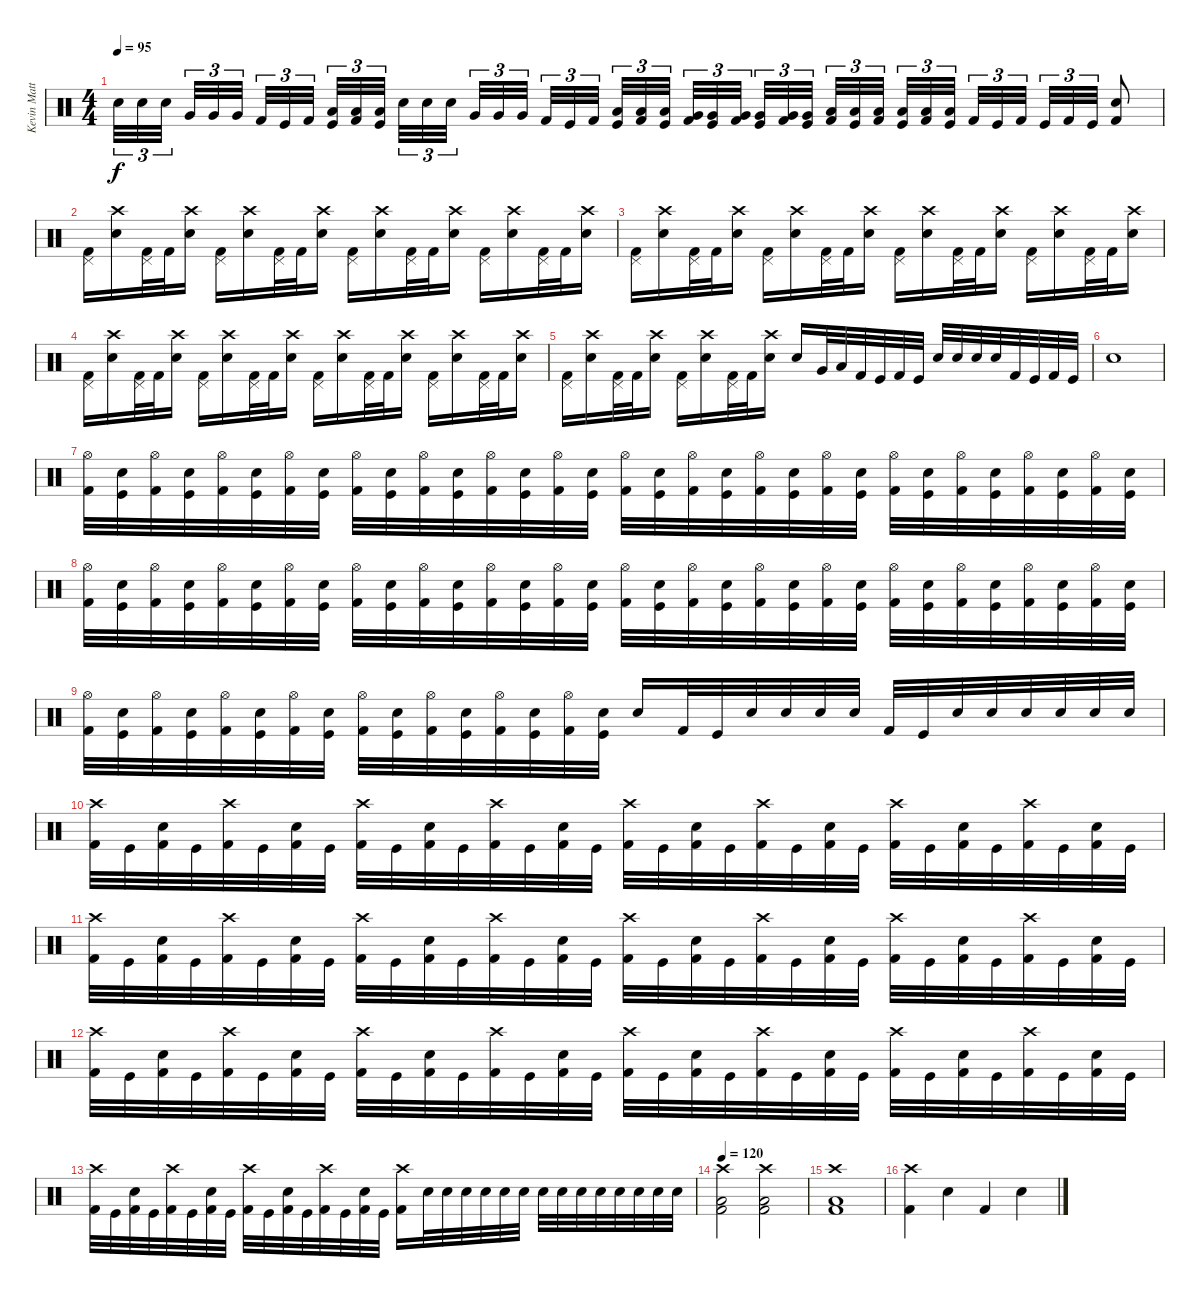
\track ("Kevin Matthews (Drums)" "Kevin Matt") {instrument percussion}
\staff {score}
\articulation defaults
\ts (4 4)
\tempo 95
\clef neutral
\ks c "Electric Snare (hit)".32{tu (3 2) dy f} "Electric Snare (hit)".32{tu (3 2)} "Electric Snare (hit)".32{tu (3 2) beam splitsecondary} "Very Low Tom (hit)".32{tu (3 2)} "Very Low Tom (hit)".32{tu (3 2)} "Very Low Tom (hit)".32{tu (3 2) beam splitsecondary} "Kick (hit) 2".32{tu (3 2)} "Kick (hit)".32{tu (3 2)} "Kick (hit) 2".32{tu (3 2) beam splitsecondary}
("Low Floor Tom (hit)" "Kick (hit)").32{tu (3 2)} ("Low Floor Tom (hit)" "Kick (hit) 2").32{tu (3 2)} ("Low Floor Tom (hit)" "Kick (hit)").32{tu (3 2)} "Electric Snare (hit)".32{tu (3 2)} "Electric Snare (hit)".32{tu (3 2)} "Electric Snare (hit)".32{tu (3 2) beam splitsecondary} "Very Low Tom (hit)".32{tu (3 2)} "Very Low Tom (hit)".32{tu (3 2)} "Very Low Tom (hit)".32{tu (3 2) beam splitsecondary} "Kick (hit) 2".32{tu (3 2)} "Kick (hit)".32{tu (3 2)} "Kick (hit) 2".32{tu (3 2) beam splitsecondary} ("Low Floor Tom (hit)" "Kick (hit)").32{tu (3 2)} ("Low Floor Tom (hit)" "Kick (hit) 2").32{tu (3 2)} ("Low Floor Tom (hit)" "Kick (hit)").32{tu (3 2)} ("Very Low Tom (hit)" "Kick (hit) 2").32{tu (3 2)} ("Very Low Tom (hit)" "Kick (hit)").32{tu (3 2)} ("Very Low Tom (hit)" "Kick (hit) 2").32{tu (3 2) beam splitsecondary} ("Very Low Tom (hit)" "Kick (hit)").32{tu (3 2)} ("Very Low Tom (hit)" "Kick (hit) 2").32{tu (3 2)} ("Very Low Tom (hit)" "Kick (hit)").32{tu (3 2) beam splitsecondary} ("Low Floor Tom (hit)" "Kick (hit) 2").32{tu (3 2)} ("Low Floor Tom (hit)" "Kick (hit)").32{tu (3 2)} ("Low Floor Tom (hit)" "Kick (hit) 2").32{tu (3 2) beam splitsecondary} ("Low Floor Tom (hit)" "Kick (hit)").32{tu (3 2)} ("Low Floor Tom (hit)" "Kick (hit) 2").32{tu (3 2)} ("Low Floor Tom (hit)" "Kick (hit)").32{tu (3 2)} "Kick (hit) 2".32{tu (3 2)} "Kick (hit)".32{tu (3 2)} "Kick (hit) 2".32{tu (3 2) beam splitsecondary} "Kick (hit)".32{tu (3 2)} "Kick (hit) 2".32{tu (3 2)} "Kick (hit)".32{tu (3 2)} ("Electric Snare (hit)" "Kick (hit) 2").8 |
("Pedal Hi-Hat (hit)" "Kick (hit) 2").16 ("Crash high (hit)" "Electric Snare (hit)").16 ("Pedal Hi-Hat (hit)" "Kick (hit) 2").32 "Kick (hit) 2".32 ("Crash high (hit)" "Electric Snare (hit)").16 ("Pedal Hi-Hat (hit)" "Kick (hit) 2").16 ("Crash high (hit)" "Electric Snare (hit)").16 ("Pedal Hi-Hat (hit)" "Kick (hit) 2").32 "Kick (hit) 2".32 ("Crash high (hit)" "Electric Snare (hit)").16 ("Pedal Hi-Hat (hit)" "Kick (hit) 2").16 ("Crash high (hit)" "Electric Snare (hit)").16 ("Pedal Hi-Hat (hit)" "Kick (hit) 2").32 "Kick (hit) 2".32 ("Crash high (hit)" "Electric Snare (hit)").16 ("Pedal Hi-Hat (hit)" "Kick (hit) 2").16 ("Crash high (hit)" "Electric Snare (hit)").16 ("Pedal Hi-Hat (hit)" "Kick (hit) 2").32 "Kick (hit) 2".32 ("Crash high (hit)" "Electric Snare (hit)").16 |
("Pedal Hi-Hat (hit)" "Kick (hit) 2").16 ("Crash high (hit)" "Electric Snare (hit)").16 ("Pedal Hi-Hat (hit)" "Kick (hit) 2").32 "Kick (hit) 2".32 ("Crash high (hit)" "Electric Snare (hit)").16 ("Pedal Hi-Hat (hit)" "Kick (hit) 2").16 ("Crash high (hit)" "Electric Snare (hit)").16 ("Pedal Hi-Hat (hit)" "Kick (hit) 2").32 "Kick (hit) 2".32 ("Crash high (hit)" "Electric Snare (hit)").16 ("Pedal Hi-Hat (hit)" "Kick (hit) 2").16 ("Crash high (hit)" "Electric Snare (hit)").16 ("Pedal Hi-Hat (hit)" "Kick (hit) 2").32 "Kick (hit) 2".32 ("Crash high (hit)" "Electric Snare (hit)").16 ("Pedal Hi-Hat (hit)" "Kick (hit) 2").16 ("Crash high (hit)" "Electric Snare (hit)").16 ("Pedal Hi-Hat (hit)" "Kick (hit) 2").32 "Kick (hit) 2".32 ("Crash high (hit)" "Electric Snare (hit)").16 |
("Pedal Hi-Hat (hit)" "Kick (hit) 2").16 ("Crash high (hit)" "Electric Snare (hit)").16 ("Pedal Hi-Hat (hit)" "Kick (hit) 2").32 "Kick (hit) 2".32 ("Crash high (hit)" "Electric Snare (hit)").16 ("Pedal Hi-Hat (hit)" "Kick (hit) 2").16 ("Crash high (hit)" "Electric Snare (hit)").16 ("Pedal Hi-Hat (hit)" "Kick (hit) 2").32 "Kick (hit) 2".32 ("Crash high (hit)" "Electric Snare (hit)").16 ("Pedal Hi-Hat (hit)" "Kick (hit) 2").16 ("Crash high (hit)" "Electric Snare (hit)").16 ("Pedal Hi-Hat (hit)" "Kick (hit) 2").32 "Kick (hit) 2".32 ("Crash high (hit)" "Electric Snare (hit)").16 ("Pedal Hi-Hat (hit)" "Kick (hit) 2").16 ("Crash high (hit)" "Electric Snare (hit)").16 ("Pedal Hi-Hat (hit)" "Kick (hit) 2").32 "Kick (hit) 2".32 ("Crash high (hit)" "Electric Snare (hit)").16 |
("Pedal Hi-Hat (hit)" "Kick (hit) 2").16 ("Crash high (hit)" "Electric Snare (hit)").16 ("Pedal Hi-Hat (hit)" "Kick (hit) 2").32 "Kick (hit) 2".32 ("Crash high (hit)" "Electric Snare (hit)").16 ("Pedal Hi-Hat (hit)" "Kick (hit) 2").16 ("Crash high (hit)" "Electric Snare (hit)").16 ("Pedal Hi-Hat (hit)" "Kick (hit) 2").32 "Kick (hit) 2".32 ("Crash high (hit)" "Electric Snare (hit)").16 "Electric Snare (hit)".16 "Very Low Tom (hit)".32 "Low Floor Tom (hit)".32 "Kick (hit) 2".32 "Kick (hit)".32 "Kick (hit) 2".32 "Kick (hit)".32 "Electric Snare (hit)".32 "Electric Snare (hit)".32 "Electric Snare (hit)".32 "Electric Snare (hit)".32 "Kick (hit) 2".32 "Kick (hit)".32 "Kick (hit) 2".32 "Kick (hit)".32 |
"Electric Snare (hit)".1 |
("Hi-Hat (open)" "Kick (hit) 2").32 ("Electric Snare (hit)" "Kick (hit)").32 ("Hi-Hat (open)" "Kick (hit) 2").32 ("Electric Snare (hit)" "Kick (hit)").32 ("Hi-Hat (open)" "Kick (hit) 2").32 ("Electric Snare (hit)" "Kick (hit)").32 ("Hi-Hat (open)" "Kick (hit) 2").32 ("Electric Snare (hit)" "Kick (hit)").32 ("Hi-Hat (open)" "Kick (hit) 2").32 ("Electric Snare (hit)" "Kick (hit)").32 ("Hi-Hat (open)" "Kick (hit) 2").32 ("Electric Snare (hit)" "Kick (hit)").32 ("Hi-Hat (open)" "Kick (hit) 2").32 ("Electric Snare (hit)" "Kick (hit)").32 ("Hi-Hat (open)" "Kick (hit) 2").32 ("Electric Snare (hit)" "Kick (hit)").32 ("Hi-Hat (open)" "Kick (hit) 2").32 ("Electric Snare (hit)" "Kick (hit)").32 ("Hi-Hat (open)" "Kick (hit) 2").32 ("Electric Snare (hit)" "Kick (hit)").32 ("Hi-Hat (open)" "Kick (hit) 2").32 ("Electric Snare (hit)" "Kick (hit)").32 ("Hi-Hat (open)" "Kick (hit) 2").32 ("Electric Snare (hit)" "Kick (hit)").32 ("Hi-Hat (open)" "Kick (hit) 2").32 ("Electric Snare (hit)" "Kick (hit)").32 ("Hi-Hat (open)" "Kick (hit) 2").32 ("Electric Snare (hit)" "Kick (hit)").32 ("Hi-Hat (open)" "Kick (hit) 2").32 ("Electric Snare (hit)" "Kick (hit)").32 ("Hi-Hat (open)" "Kick (hit) 2").32 ("Electric Snare (hit)" "Kick (hit)").32 |
("Hi-Hat (open)" "Kick (hit) 2").32 ("Electric Snare (hit)" "Kick (hit)").32 ("Hi-Hat (open)" "Kick (hit) 2").32 ("Electric Snare (hit)" "Kick (hit)").32 ("Hi-Hat (open)" "Kick (hit) 2").32 ("Electric Snare (hit)" "Kick (hit)").32 ("Hi-Hat (open)" "Kick (hit) 2").32 ("Electric Snare (hit)" "Kick (hit)").32 ("Hi-Hat (open)" "Kick (hit) 2").32 ("Electric Snare (hit)" "Kick (hit)").32 ("Hi-Hat (open)" "Kick (hit) 2").32 ("Electric Snare (hit)" "Kick (hit)").32 ("Hi-Hat (open)" "Kick (hit) 2").32 ("Electric Snare (hit)" "Kick (hit)").32 ("Hi-Hat (open)" "Kick (hit) 2").32 ("Electric Snare (hit)" "Kick (hit)").32 ("Hi-Hat (open)" "Kick (hit) 2").32 ("Electric Snare (hit)" "Kick (hit)").32 ("Hi-Hat (open)" "Kick (hit) 2").32 ("Electric Snare (hit)" "Kick (hit)").32 ("Hi-Hat (open)" "Kick (hit) 2").32 ("Electric Snare (hit)" "Kick (hit)").32 ("Hi-Hat (open)" "Kick (hit) 2").32 ("Electric Snare (hit)" "Kick (hit)").32 ("Hi-Hat (open)" "Kick (hit) 2").32 ("Electric Snare (hit)" "Kick (hit)").32 ("Hi-Hat (open)" "Kick (hit) 2").32 ("Electric Snare (hit)" "Kick (hit)").32 ("Hi-Hat (open)" "Kick (hit) 2").32 ("Electric Snare (hit)" "Kick (hit)").32 ("Hi-Hat (open)" "Kick (hit) 2").32 ("Electric Snare (hit)" "Kick (hit)").32 |
("Hi-Hat (open)" "Kick (hit) 2").32 ("Electric Snare (hit)" "Kick (hit)").32 ("Hi-Hat (open)" "Kick (hit) 2").32 ("Electric Snare (hit)" "Kick (hit)").32 ("Hi-Hat (open)" "Kick (hit) 2").32 ("Electric Snare (hit)" "Kick (hit)").32 ("Hi-Hat (open)" "Kick (hit) 2").32 ("Electric Snare (hit)" "Kick (hit)").32 ("Hi-Hat (open)" "Kick (hit) 2").32 ("Electric Snare (hit)" "Kick (hit)").32 ("Hi-Hat (open)" "Kick (hit) 2").32 ("Electric Snare (hit)" "Kick (hit)").32 ("Hi-Hat (open)" "Kick (hit) 2").32 ("Electric Snare (hit)" "Kick (hit)").32 ("Hi-Hat (open)" "Kick (hit) 2").32 ("Electric Snare (hit)" "Kick (hit)").32 "Electric Snare (hit)".16 "Kick (hit) 2".32 "Kick (hit)".32 "Electric Snare (hit)".32 "Electric Snare (hit)".32 "Electric Snare (hit)".32 "Electric Snare (hit)".32 "Kick (hit) 2".32 "Kick (hit)".32 "Electric Snare (hit)".32 "Electric Snare (hit)".32 "Electric Snare (hit)".32 "Electric Snare (hit)".32 "Electric Snare (hit)".32 "Electric Snare (hit)".32 |
("Crash high (hit)" "Kick (hit) 2").32 "Kick (hit)".32 ("Electric Snare (hit)" "Kick (hit) 2").32 "Kick (hit)".32 ("Crash high (hit)" "Kick (hit) 2").32 "Kick (hit)".32 ("Electric Snare (hit)" "Kick (hit) 2").32 "Kick (hit)".32 ("Crash high (hit)" "Kick (hit) 2").32 "Kick (hit)".32 ("Electric Snare (hit)" "Kick (hit) 2").32 "Kick (hit)".32 ("Crash high (hit)" "Kick (hit) 2").32 "Kick (hit)".32 ("Electric Snare (hit)" "Kick (hit) 2").32 "Kick (hit)".32 ("Crash high (hit)" "Kick (hit) 2").32 "Kick (hit)".32 ("Electric Snare (hit)" "Kick (hit) 2").32 "Kick (hit)".32 ("Crash high (hit)" "Kick (hit) 2").32 "Kick (hit)".32 ("Electric Snare (hit)" "Kick (hit) 2").32 "Kick (hit)".32 ("Crash high (hit)" "Kick (hit) 2").32 "Kick (hit)".32 ("Electric Snare (hit)" "Kick (hit) 2").32 "Kick (hit)".32 ("Crash high (hit)" "Kick (hit) 2").32 "Kick (hit)".32 ("Electric Snare (hit)" "Kick (hit) 2").32 "Kick (hit)".32 |
("Crash high (hit)" "Kick (hit) 2").32 "Kick (hit)".32 ("Electric Snare (hit)" "Kick (hit) 2").32 "Kick (hit)".32 ("Crash high (hit)" "Kick (hit) 2").32 "Kick (hit)".32 ("Electric Snare (hit)" "Kick (hit) 2").32 "Kick (hit)".32 ("Crash high (hit)" "Kick (hit) 2").32 "Kick (hit)".32 ("Electric Snare (hit)" "Kick (hit) 2").32 "Kick (hit)".32 ("Crash high (hit)" "Kick (hit) 2").32 "Kick (hit)".32 ("Electric Snare (hit)" "Kick (hit) 2").32 "Kick (hit)".32 ("Crash high (hit)" "Kick (hit) 2").32 "Kick (hit)".32 ("Electric Snare (hit)" "Kick (hit) 2").32 "Kick (hit)".32 ("Crash high (hit)" "Kick (hit) 2").32 "Kick (hit)".32 ("Electric Snare (hit)" "Kick (hit) 2").32 "Kick (hit)".32 ("Crash high (hit)" "Kick (hit) 2").32 "Kick (hit)".32 ("Electric Snare (hit)" "Kick (hit) 2").32 "Kick (hit)".32 ("Crash high (hit)" "Kick (hit) 2").32 "Kick (hit)".32 ("Electric Snare (hit)" "Kick (hit) 2").32 "Kick (hit)".32 |
("Crash high (hit)" "Kick (hit) 2").32 "Kick (hit)".32 ("Electric Snare (hit)" "Kick (hit) 2").32 "Kick (hit)".32 ("Crash high (hit)" "Kick (hit) 2").32 "Kick (hit)".32 ("Electric Snare (hit)" "Kick (hit) 2").32 "Kick (hit)".32 ("Crash high (hit)" "Kick (hit) 2").32 "Kick (hit)".32 ("Electric Snare (hit)" "Kick (hit) 2").32 "Kick (hit)".32 ("Crash high (hit)" "Kick (hit) 2").32 "Kick (hit)".32 ("Electric Snare (hit)" "Kick (hit) 2").32 "Kick (hit)".32 ("Crash high (hit)" "Kick (hit) 2").32 "Kick (hit)".32 ("Electric Snare (hit)" "Kick (hit) 2").32 "Kick (hit)".32 ("Crash high (hit)" "Kick (hit) 2").32 "Kick (hit)".32 ("Electric Snare (hit)" "Kick (hit) 2").32 "Kick (hit)".32 ("Crash high (hit)" "Kick (hit) 2").32 "Kick (hit)".32 ("Electric Snare (hit)" "Kick (hit) 2").32 "Kick (hit)".32 ("Crash high (hit)" "Kick (hit) 2").32 "Kick (hit)".32 ("Electric Snare (hit)" "Kick (hit) 2").32 "Kick (hit)".32 |
("Crash high (hit)" "Kick (hit) 2").32 "Kick (hit)".32 ("Electric Snare (hit)" "Kick (hit) 2").32 "Kick (hit)".32 ("Crash high (hit)" "Kick (hit) 2").32 "Kick (hit)".32 ("Electric Snare (hit)" "Kick (hit) 2").32 "Kick (hit)".32 ("Crash high (hit)" "Kick (hit) 2").32 "Kick (hit)".32 ("Electric Snare (hit)" "Kick (hit) 2").32 "Kick (hit)".32 ("Crash high (hit)" "Kick (hit) 2").32 "Kick (hit)".32 ("Electric Snare (hit)" "Kick (hit) 2").32 "Kick (hit)".32 ("Crash high (hit)" "Kick (hit) 2").16 "Electric Snare (hit)".32 "Electric Snare (hit)".32 "Electric Snare (hit)".32 "Electric Snare (hit)".32 "Electric Snare (hit)".32 "Electric Snare (hit)".32 "Electric Snare (hit)".32 "Electric Snare (hit)".32 "Electric Snare (hit)".32 "Electric Snare (hit)".32 "Electric Snare (hit)".32 "Electric Snare (hit)".32 "Electric Snare (hit)".32 "Electric Snare (hit)".32 |
\tempo 120
("Crash high (hit)" "Low Floor Tom (hit)" "Kick (hit) 2").2 ("Crash high (hit)" "Low Floor Tom (hit)" "Kick (hit) 2").2 |
("Crash high (hit)" "Low Floor Tom (hit)" "Kick (hit) 2").1 |
("Crash high (hit)" "Kick (hit) 2").4 "Electric Snare (hit)".4 "Kick (hit) 2".4 "Electric Snare (hit)".4
